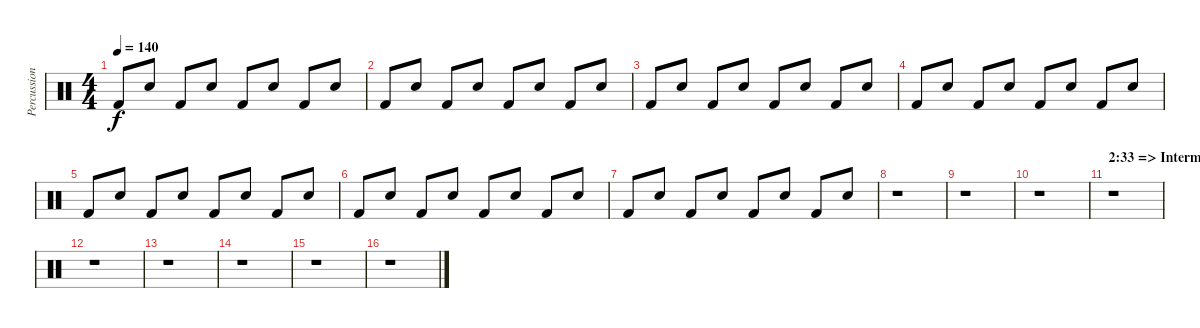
\track ("Percussions" "Percussion") {instrument percussion}
\staff {score}
\articulation defaults
\ts (4 4)
\tempo 140
\clef neutral
\ks c "Kick (hit) 2".8{dy f} "Snare (hit) 2".8 "Kick (hit) 2".8 "Snare (hit) 2".8 "Kick (hit) 2".8 "Snare (hit) 2".8 "Kick (hit) 2".8 "Snare (hit) 2".8
|
"Kick (hit) 2".8 "Snare (hit) 2".8 "Kick (hit) 2".8 "Snare (hit) 2".8 "Kick (hit) 2".8 "Snare (hit) 2".8 "Kick (hit) 2".8 "Snare (hit) 2".8 |
"Kick (hit) 2".8 "Snare (hit) 2".8 "Kick (hit) 2".8 "Snare (hit) 2".8 "Kick (hit) 2".8 "Snare (hit) 2".8 "Kick (hit) 2".8 "Snare (hit) 2".8 |
"Kick (hit) 2".8 "Snare (hit) 2".8 "Kick (hit) 2".8 "Snare (hit) 2".8 "Kick (hit) 2".8 "Snare (hit) 2".8 "Kick (hit) 2".8 "Snare (hit) 2".8 |
"Kick (hit) 2".8 "Snare (hit) 2".8 "Kick (hit) 2".8 "Snare (hit) 2".8 "Kick (hit) 2".8 "Snare (hit) 2".8 "Kick (hit) 2".8 "Snare (hit) 2".8 |
"Kick (hit) 2".8 "Snare (hit) 2".8 "Kick (hit) 2".8 "Snare (hit) 2".8 "Kick (hit) 2".8 "Snare (hit) 2".8 "Kick (hit) 2".8 "Snare (hit) 2".8 |
"Kick (hit) 2".8 "Snare (hit) 2".8 "Kick (hit) 2".8 "Snare (hit) 2".8 "Kick (hit) 2".8 "Snare (hit) 2".8 "Kick (hit) 2".8 "Snare (hit) 2".8 |
r.1 |
r.1 |
r.1 |
\section ("" "2:33 => Intermède")
r.1 |
r.1 |
r.1 |
r.1 |
r.1 |
r.1
